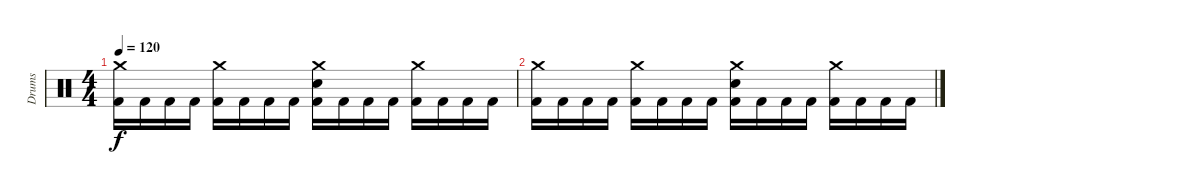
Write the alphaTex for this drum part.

\track ("Drums" "Drums") {instrument percussion}
\staff {score}
\articulation defaults
\ts (4 4)
\tempo 120
\clef neutral
\ks c
("Crash medium (hit)" "Kick (hit) 2").16{dy f} "Kick (hit) 2".16 "Kick (hit) 2".16 "Kick (hit) 2".16 ("Crash medium (hit)" "Kick (hit) 2").16 "Kick (hit) 2".16 "Kick (hit) 2".16 "Kick (hit) 2".16 ("Crash medium (hit)" "Electric Snare (hit)" "Kick (hit) 2").16 "Kick (hit) 2".16 "Kick (hit) 2".16 "Kick (hit) 2".16 ("Crash medium (hit)" "Kick (hit) 2").16 "Kick (hit) 2".16 "Kick (hit) 2".16 "Kick (hit) 2".16 |
("Crash medium (hit)" "Kick (hit) 2").16 "Kick (hit) 2".16 "Kick (hit) 2".16 "Kick (hit) 2".16 ("Crash medium (hit)" "Kick (hit) 2").16 "Kick (hit) 2".16 "Kick (hit) 2".16 "Kick (hit) 2".16 ("Crash medium (hit)" "Electric Snare (hit)" "Kick (hit) 2").16 "Kick (hit) 2".16 "Kick (hit) 2".16 "Kick (hit) 2".16 ("Crash medium (hit)" "Kick (hit) 2").16 "Kick (hit) 2".16 "Kick (hit) 2".16 "Kick (hit) 2".16
